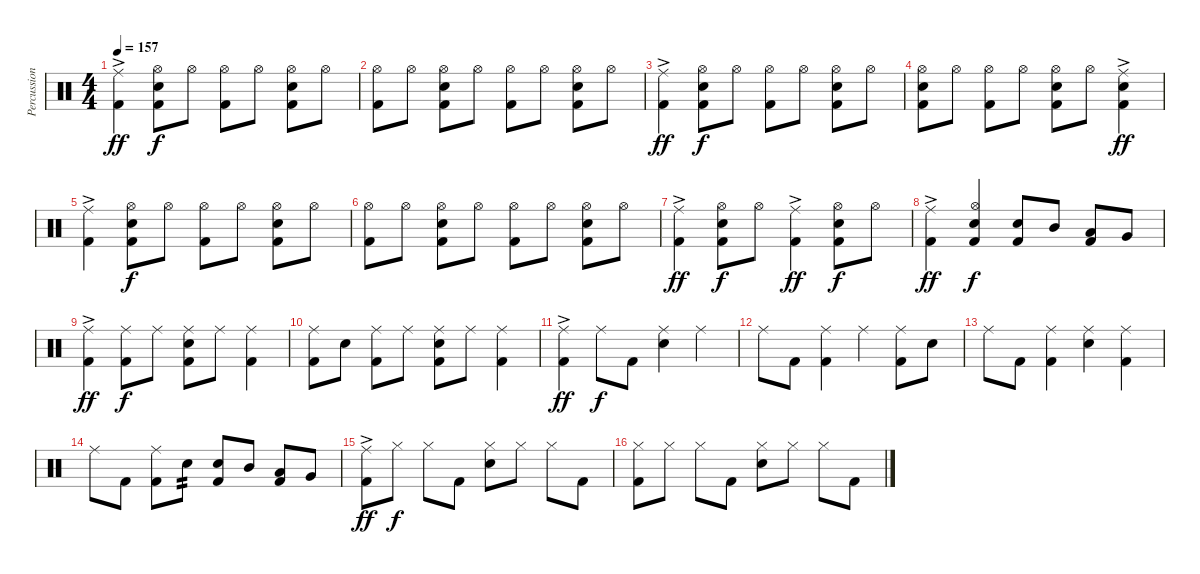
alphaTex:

\track ("Percussion" "Percussion") {instrument percussion}
\staff {score}
\articulation defaults
\ts (4 4)
\tempo 157
\clef neutral
\ks c
("Ride (middle)"{ac} "Kick (hit) 2").4{dy ff} ("Hi-Hat (open)" "Snare (hit) 2" "Kick (hit) 2").8{dy f} "Hi-Hat (open)".8 ("Hi-Hat (open)" "Kick (hit) 2").8 "Hi-Hat (open)".8 ("Hi-Hat (open)" "Snare (hit) 2" "Kick (hit) 2").8 "Hi-Hat (open)".8 |
("Hi-Hat (open)" "Kick (hit) 2").8 "Hi-Hat (open)".8 ("Hi-Hat (open)" "Snare (hit) 2" "Kick (hit) 2").8 "Hi-Hat (open)".8 ("Hi-Hat (open)" "Kick (hit) 2").8 "Hi-Hat (open)".8 ("Hi-Hat (open)" "Snare (hit) 2" "Kick (hit) 2").8 "Hi-Hat (open)".8 |
("Ride (middle)"{ac} "Kick (hit) 2").4{dy ff} ("Hi-Hat (open)" "Snare (hit) 2" "Kick (hit) 2").8{dy f} "Hi-Hat (open)".8 ("Hi-Hat (open)" "Kick (hit) 2").8 "Hi-Hat (open)".8 ("Hi-Hat (open)" "Snare (hit) 2" "Kick (hit) 2").8 "Hi-Hat (open)".8 |
("Hi-Hat (open)" "Snare (hit) 2" "Kick (hit) 2").8 "Hi-Hat (open)".8 ("Hi-Hat (open)" "Kick (hit) 2").8 "Hi-Hat (open)".8 ("Hi-Hat (open)" "Snare (hit) 2" "Kick (hit) 2").8 "Hi-Hat (open)".8 ("Ride (middle)"{ac} "Snare (hit) 2" "Kick (hit) 2").4{dy ff} |
("Ride (middle)"{ac} "Kick (hit) 2").4 ("Hi-Hat (open)" "Snare (hit) 2" "Kick (hit) 2").8{dy f} "Hi-Hat (open)".8 ("Hi-Hat (open)" "Kick (hit) 2").8 "Hi-Hat (open)".8 ("Hi-Hat (open)" "Snare (hit) 2" "Kick (hit) 2").8 "Hi-Hat (open)".8 |
("Hi-Hat (open)" "Kick (hit) 2").8 "Hi-Hat (open)".8 ("Hi-Hat (open)" "Snare (hit) 2" "Kick (hit) 2").8 "Hi-Hat (open)".8 ("Hi-Hat (open)" "Kick (hit) 2").8 "Hi-Hat (open)".8 ("Hi-Hat (open)" "Snare (hit) 2" "Kick (hit) 2").8 "Hi-Hat (open)".8 |
("Ride (middle)"{ac} "Kick (hit) 2").4{dy ff} ("Hi-Hat (open)" "Snare (hit) 2" "Kick (hit) 2").8{dy f} "Hi-Hat (open)".8 ("Ride (middle)"{ac} "Kick (hit) 2").4{dy ff} ("Hi-Hat (open)" "Snare (hit) 2" "Kick (hit) 2").8{dy f} "Hi-Hat (open)".8 |
("Ride (middle)"{ac} "Kick (hit) 2").4{dy ff} ("Hi-Hat (open)" "Snare (hit) 2" "Kick (hit) 2").4{dy f} ("Snare (hit) 2" "Kick (hit) 2").8 "Mid Tom (hit)".8 ("Low Tom (hit)" "Kick (hit) 2").8 "Very Low Tom (hit)".8 |
("Ride (middle)"{ac} "Kick (hit) 2").4{dy ff} ("Ride (middle)" "Kick (hit) 2").8{dy f} "Ride (middle)".8 ("Ride (middle)" "Snare (hit) 2" "Kick (hit) 2").8 "Ride (middle)".8 ("Ride (middle)" "Kick (hit) 2").4 |
("Ride (middle)" "Kick (hit) 2").8 "Snare (hit) 2".8 ("Ride (middle)" "Kick (hit) 2").8 "Ride (middle)".8 ("Ride (middle)" "Snare (hit) 2" "Kick (hit) 2").8 "Ride (middle)".8 ("Ride (middle)" "Kick (hit) 2").4 |
("Ride (middle)"{ac} "Kick (hit) 2").4{dy ff} "Ride (middle)".8{dy f} "Kick (hit) 2".8 ("Ride (middle)" "Snare (hit) 2").4 "Ride (middle)".4 |
"Ride (middle)".8 "Kick (hit) 2".8 ("Ride (middle)" "Kick (hit) 2").4 "Ride (middle)".4 ("Ride (middle)" "Kick (hit) 2").8 "Snare (hit) 2".8 |
"Ride (middle)".8 "Kick (hit) 2".8 ("Ride (middle)" "Kick (hit) 2").4 ("Ride (middle)" "Snare (hit) 2").4 ("Ride (middle)" "Kick (hit) 2").4 |
"Ride (middle)".8 "Kick (hit) 2".8 ("Ride (middle)" "Kick (hit) 2").8 "Snare (hit) 2".8{tp 2} ("Snare (hit) 2" "Kick (hit) 2").8 "Mid Tom (hit)".8 ("Low Tom (hit)" "Kick (hit) 2").8 "Very Low Tom (hit)".8 |
("Ride (middle)"{ac} "Kick (hit) 2").8{dy ff} "Hi-Hat (closed)".8{dy f} "Hi-Hat (closed)".8 "Kick (hit) 2".8 ("Hi-Hat (closed)" "Snare (hit) 2").8 "Hi-Hat (closed)".8 "Hi-Hat (closed)".8 "Kick (hit) 2".8 |
("Hi-Hat (closed)" "Kick (hit) 2").8 "Hi-Hat (closed)".8 "Hi-Hat (closed)".8 "Kick (hit) 2".8 ("Hi-Hat (closed)" "Snare (hit) 2").8 "Hi-Hat (closed)".8 "Hi-Hat (closed)".8 "Kick (hit) 2".8
